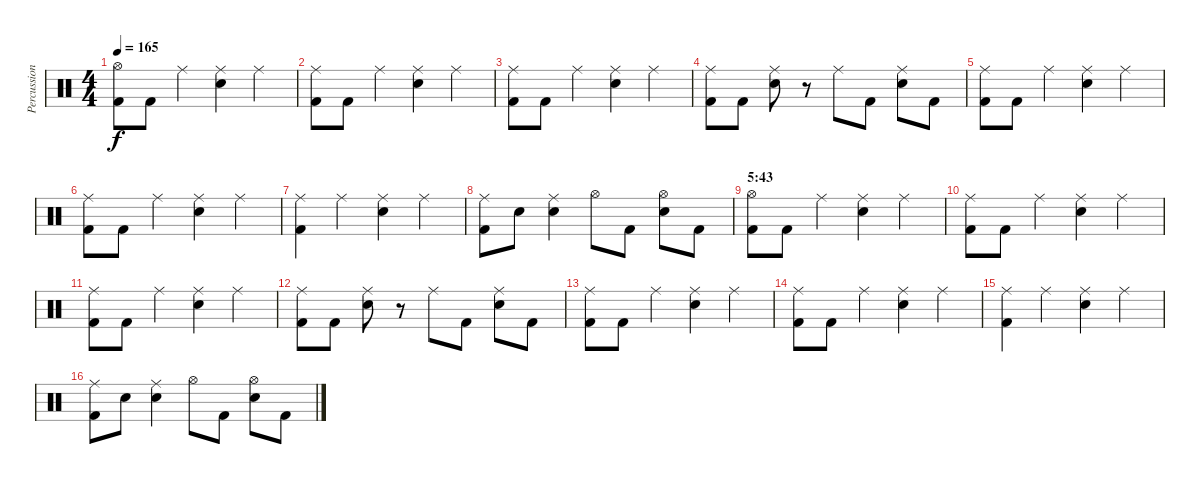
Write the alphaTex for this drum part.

\track ("Percussion" "Percussion") {instrument percussion}
\staff {score}
\articulation defaults
\ts (4 4)
\tempo 165
\clef neutral
\ks c
("Hi-Hat (open)" "Kick (hit) 2").8{dy f} "Kick (hit) 2".8 "Ride (middle)".4 ("Ride (middle)" "Electric Snare (hit)").4 "Ride (middle)".4 |
("Ride (middle)" "Kick (hit) 2").8 "Kick (hit) 2".8 "Ride (middle)".4 ("Ride (middle)" "Electric Snare (hit)").4 "Ride (middle)".4 |
("Ride (middle)" "Kick (hit) 2").8 "Kick (hit) 2".8 "Ride (middle)".4 ("Ride (middle)" "Electric Snare (hit)").4 "Ride (middle)".4 |
("Ride (middle)" "Kick (hit) 2").8 "Kick (hit) 2".8 ("Ride (middle)" "Electric Snare (hit)").8 r.8 "Ride (middle)".8 "Kick (hit) 2".8 ("Ride (middle)" "Electric Snare (hit)").8 "Kick (hit) 2".8 |
("Ride (middle)" "Kick (hit) 2").8 "Kick (hit) 2".8 "Ride (middle)".4 ("Ride (middle)" "Electric Snare (hit)").4 "Ride (middle)".4 |
("Ride (middle)" "Kick (hit) 2").8 "Kick (hit) 2".8 "Ride (middle)".4 ("Ride (middle)" "Electric Snare (hit)").4 "Ride (middle)".4 |
("Ride (middle)" "Kick (hit) 2").4 "Ride (middle)".4 ("Ride (middle)" "Electric Snare (hit)").4 "Ride (middle)".4 |
("Ride (middle)" "Kick (hit) 2").8 "Electric Snare (hit)".8 ("Ride (middle)" "Electric Snare (hit)").4 "Hi-Hat (open)".8 "Kick (hit) 2".8 ("Hi-Hat (open)" "Electric Snare (hit)").8 "Kick (hit) 2".8 |
\section ("" "5:43")
("Hi-Hat (open)" "Kick (hit) 2").8 "Kick (hit) 2".8 "Ride (middle)".4 ("Ride (middle)" "Electric Snare (hit)").4 "Ride (middle)".4 |
("Ride (middle)" "Kick (hit) 2").8 "Kick (hit) 2".8 "Ride (middle)".4 ("Ride (middle)" "Electric Snare (hit)").4 "Ride (middle)".4 |
("Ride (middle)" "Kick (hit) 2").8 "Kick (hit) 2".8 "Ride (middle)".4 ("Ride (middle)" "Electric Snare (hit)").4 "Ride (middle)".4 |
("Ride (middle)" "Kick (hit) 2").8 "Kick (hit) 2".8 ("Ride (middle)" "Electric Snare (hit)").8 r.8 "Ride (middle)".8 "Kick (hit) 2".8 ("Ride (middle)" "Electric Snare (hit)").8 "Kick (hit) 2".8 |
("Ride (middle)" "Kick (hit) 2").8 "Kick (hit) 2".8 "Ride (middle)".4 ("Ride (middle)" "Electric Snare (hit)").4 "Ride (middle)".4 |
("Ride (middle)" "Kick (hit) 2").8 "Kick (hit) 2".8 "Ride (middle)".4 ("Ride (middle)" "Electric Snare (hit)").4 "Ride (middle)".4 |
("Ride (middle)" "Kick (hit) 2").4 "Ride (middle)".4 ("Ride (middle)" "Electric Snare (hit)").4 "Ride (middle)".4 |
("Ride (middle)" "Kick (hit) 2").8 "Electric Snare (hit)".8 ("Ride (middle)" "Electric Snare (hit)").4 "Hi-Hat (open)".8 "Kick (hit) 2".8 ("Hi-Hat (open)" "Electric Snare (hit)").8 "Kick (hit) 2".8
